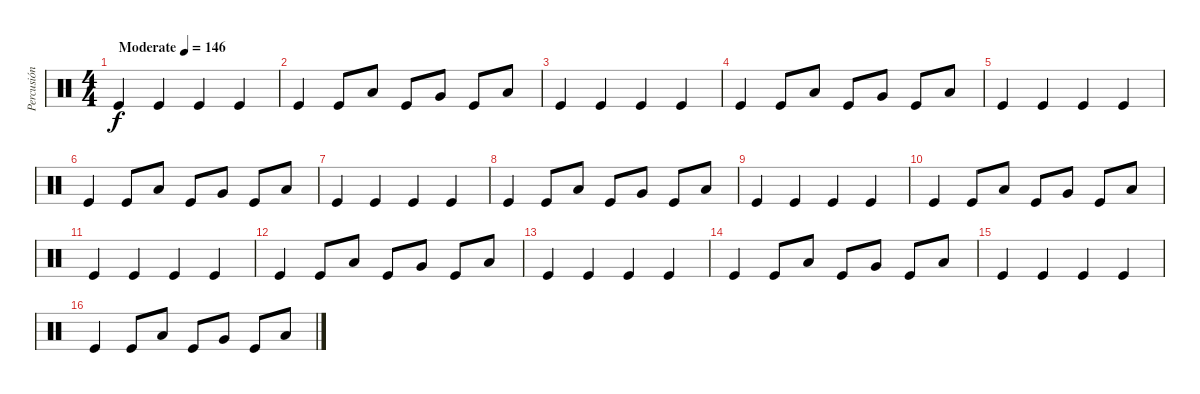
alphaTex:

\track ("Percusión" "Percusión") {instrument percussion}
\staff {score}
\articulation defaults
\ts (4 4)
\tempo (146 "Moderate")
\clef neutral
\ks c "Kick (hit)".4{dy f} "Kick (hit)".4 "Kick (hit)".4 "Kick (hit)".4
|
"Kick (hit)".4 "Kick (hit)".8 "Low Tom (hit)".8 "Kick (hit)".8 "Very Low Tom (hit)".8 "Kick (hit)".8 "Low Floor Tom (hit)".8 |
"Kick (hit)".4 "Kick (hit)".4 "Kick (hit)".4 "Kick (hit)".4 |
"Kick (hit)".4 "Kick (hit)".8 "Low Tom (hit)".8 "Kick (hit)".8 "Very Low Tom (hit)".8 "Kick (hit)".8 "Low Floor Tom (hit)".8 |
"Kick (hit)".4 "Kick (hit)".4 "Kick (hit)".4 "Kick (hit)".4 |
"Kick (hit)".4 "Kick (hit)".8 "Low Tom (hit)".8 "Kick (hit)".8 "Very Low Tom (hit)".8 "Kick (hit)".8 "Low Floor Tom (hit)".8 |
"Kick (hit)".4 "Kick (hit)".4 "Kick (hit)".4 "Kick (hit)".4 |
"Kick (hit)".4 "Kick (hit)".8 "Low Tom (hit)".8 "Kick (hit)".8 "Very Low Tom (hit)".8 "Kick (hit)".8 "Low Floor Tom (hit)".8 |
"Kick (hit)".4 "Kick (hit)".4 "Kick (hit)".4 "Kick (hit)".4 |
"Kick (hit)".4 "Kick (hit)".8 "Low Tom (hit)".8 "Kick (hit)".8 "Very Low Tom (hit)".8 "Kick (hit)".8 "Low Floor Tom (hit)".8 |
"Kick (hit)".4 "Kick (hit)".4 "Kick (hit)".4 "Kick (hit)".4 |
"Kick (hit)".4 "Kick (hit)".8 "Low Tom (hit)".8 "Kick (hit)".8 "Very Low Tom (hit)".8 "Kick (hit)".8 "Low Floor Tom (hit)".8 |
"Kick (hit)".4 "Kick (hit)".4 "Kick (hit)".4 "Kick (hit)".4 |
"Kick (hit)".4 "Kick (hit)".8 "Low Tom (hit)".8 "Kick (hit)".8 "Very Low Tom (hit)".8 "Kick (hit)".8 "Low Floor Tom (hit)".8 |
"Kick (hit)".4 "Kick (hit)".4 "Kick (hit)".4 "Kick (hit)".4 |
"Kick (hit)".4 "Kick (hit)".8 "Low Tom (hit)".8 "Kick (hit)".8 "Very Low Tom (hit)".8 "Kick (hit)".8 "Low Floor Tom (hit)".8
